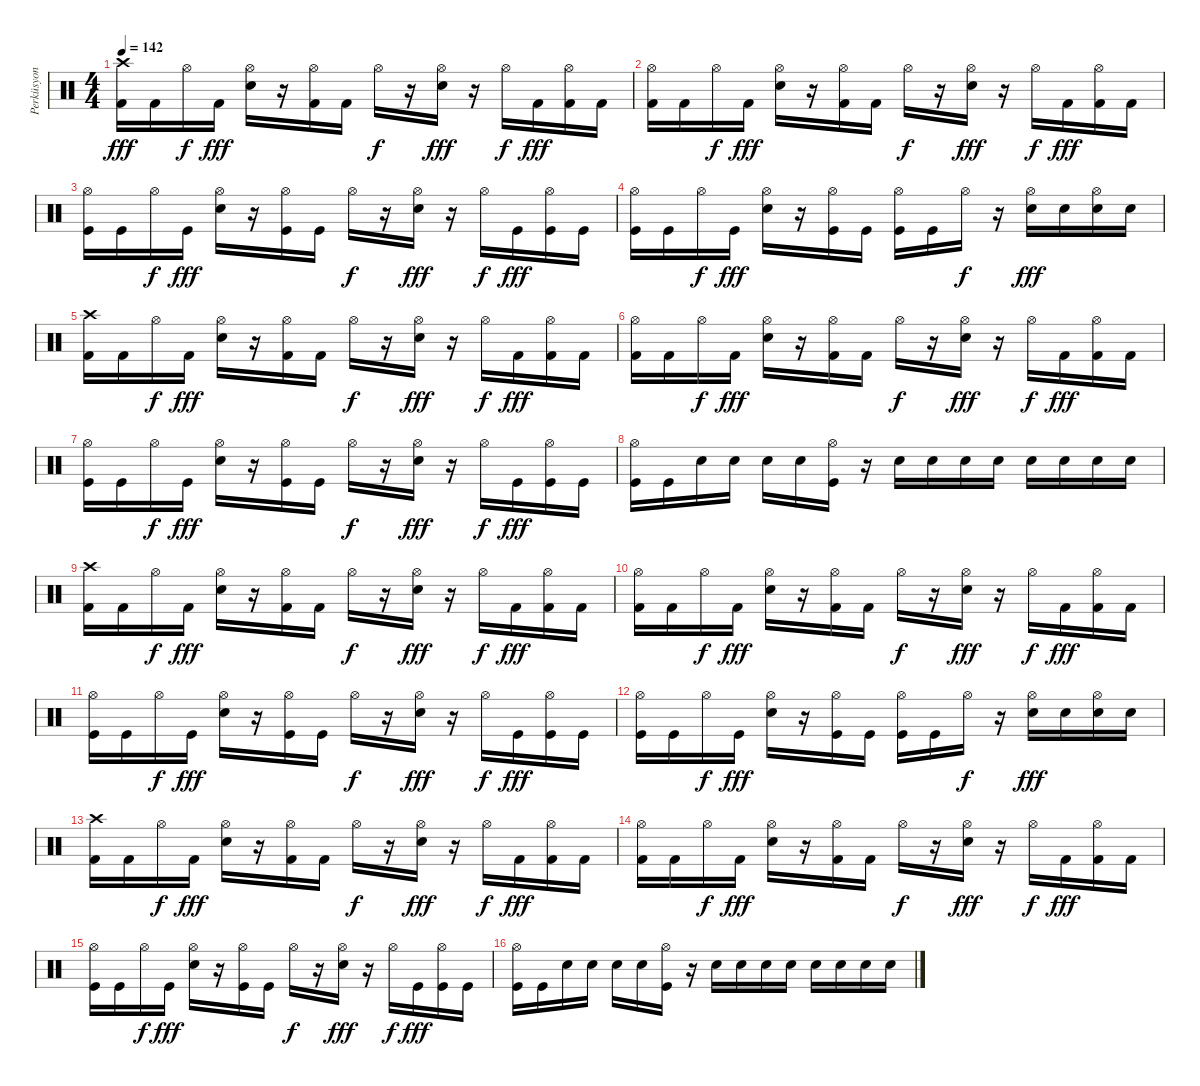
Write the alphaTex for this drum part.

\track ("Perküsyon" "Perküsyon") {instrument percussion}
\staff {score}
\articulation defaults
\ts (4 4)
\tempo 142
\clef neutral
\ks c
("Kick (hit) 2" "Crash high (hit)").16{dy fff} "Kick (hit) 2".16 "Hi-Hat (open)".16{dy f} "Kick (hit) 2".16{dy fff} ("Hi-Hat (open)" "Snare (hit) 2").16 r.16 ("Hi-Hat (open)" "Kick (hit) 2").16 "Kick (hit) 2".16 "Hi-Hat (open)".16{dy f} r.16 ("Hi-Hat (open)" "Snare (hit) 2").16{dy fff} r.16 "Hi-Hat (open)".16{dy f} "Kick (hit) 2".16{dy fff} ("Hi-Hat (open)" "Kick (hit) 2").16 "Kick (hit) 2".16 |
("Hi-Hat (open)" "Kick (hit) 2").16 "Kick (hit) 2".16 "Hi-Hat (open)".16{dy f} "Kick (hit) 2".16{dy fff} ("Hi-Hat (open)" "Snare (hit) 2").16 r.16 ("Hi-Hat (open)" "Kick (hit) 2").16 "Kick (hit) 2".16 "Hi-Hat (open)".16{dy f} r.16 ("Hi-Hat (open)" "Snare (hit) 2").16{dy fff} r.16 "Hi-Hat (open)".16{dy f} "Kick (hit) 2".16{dy fff} ("Hi-Hat (open)" "Kick (hit) 2").16 "Kick (hit) 2".16 |
("Hi-Hat (open)" "Kick (hit)").16 "Kick (hit)".16 "Hi-Hat (open)".16{dy f} "Kick (hit)".16{dy fff} ("Hi-Hat (open)" "Snare (hit) 2").16 r.16 ("Hi-Hat (open)" "Kick (hit)").16 "Kick (hit)".16 "Hi-Hat (open)".16{dy f} r.16 ("Hi-Hat (open)" "Snare (hit) 2").16{dy fff} r.16 "Hi-Hat (open)".16{dy f} "Kick (hit)".16{dy fff} ("Hi-Hat (open)" "Kick (hit)").16 "Kick (hit)".16 |
("Hi-Hat (open)" "Kick (hit)").16 "Kick (hit)".16 "Hi-Hat (open)".16{dy f} "Kick (hit)".16{dy fff} ("Hi-Hat (open)" "Snare (hit) 2").16 r.16 ("Hi-Hat (open)" "Kick (hit)").16 "Kick (hit)".16 ("Hi-Hat (open)" "Kick (hit)").16 "Kick (hit)".16 "Hi-Hat (open)".16{dy f} r.16 ("Hi-Hat (open)" "Snare (hit) 2").16{dy fff} "Snare (hit) 2".16 ("Hi-Hat (open)" "Snare (hit) 2").16 "Snare (hit) 2".16 |
("Kick (hit) 2" "Crash high (hit)").16 "Kick (hit) 2".16 "Hi-Hat (open)".16{dy f} "Kick (hit) 2".16{dy fff} ("Hi-Hat (open)" "Snare (hit) 2").16 r.16 ("Hi-Hat (open)" "Kick (hit) 2").16 "Kick (hit) 2".16 "Hi-Hat (open)".16{dy f} r.16 ("Hi-Hat (open)" "Snare (hit) 2").16{dy fff} r.16 "Hi-Hat (open)".16{dy f} "Kick (hit) 2".16{dy fff} ("Hi-Hat (open)" "Kick (hit) 2").16 "Kick (hit) 2".16 |
("Hi-Hat (open)" "Kick (hit) 2").16 "Kick (hit) 2".16 "Hi-Hat (open)".16{dy f} "Kick (hit) 2".16{dy fff} ("Hi-Hat (open)" "Snare (hit) 2").16 r.16 ("Hi-Hat (open)" "Kick (hit) 2").16 "Kick (hit) 2".16 "Hi-Hat (open)".16{dy f} r.16 ("Hi-Hat (open)" "Snare (hit) 2").16{dy fff} r.16 "Hi-Hat (open)".16{dy f} "Kick (hit) 2".16{dy fff} ("Hi-Hat (open)" "Kick (hit) 2").16 "Kick (hit) 2".16 |
("Hi-Hat (open)" "Kick (hit)").16 "Kick (hit)".16 "Hi-Hat (open)".16{dy f} "Kick (hit)".16{dy fff} ("Hi-Hat (open)" "Snare (hit) 2").16 r.16 ("Hi-Hat (open)" "Kick (hit)").16 "Kick (hit)".16 "Hi-Hat (open)".16{dy f} r.16 ("Hi-Hat (open)" "Snare (hit) 2").16{dy fff} r.16 "Hi-Hat (open)".16{dy f} "Kick (hit)".16{dy fff} ("Hi-Hat (open)" "Kick (hit)").16 "Kick (hit)".16 |
("Hi-Hat (open)" "Kick (hit)").16 "Kick (hit)".16 "Snare (hit) 2".16 "Snare (hit) 2".16 "Snare (hit) 2".16 "Snare (hit) 2".16 ("Hi-Hat (open)" "Kick (hit)").16 r.16 "Snare (hit) 2".16 "Snare (hit) 2".16 "Snare (hit) 2".16 "Snare (hit) 2".16 "Snare (hit) 2".16 "Snare (hit) 2".16 "Snare (hit) 2".16 "Snare (hit) 2".16 |
("Kick (hit) 2" "Crash high (hit)").16 "Kick (hit) 2".16 "Hi-Hat (open)".16{dy f} "Kick (hit) 2".16{dy fff} ("Hi-Hat (open)" "Snare (hit) 2").16 r.16 ("Hi-Hat (open)" "Kick (hit) 2").16 "Kick (hit) 2".16 "Hi-Hat (open)".16{dy f} r.16 ("Hi-Hat (open)" "Snare (hit) 2").16{dy fff} r.16 "Hi-Hat (open)".16{dy f} "Kick (hit) 2".16{dy fff} ("Hi-Hat (open)" "Kick (hit) 2").16 "Kick (hit) 2".16 |
("Hi-Hat (open)" "Kick (hit) 2").16 "Kick (hit) 2".16 "Hi-Hat (open)".16{dy f} "Kick (hit) 2".16{dy fff} ("Hi-Hat (open)" "Snare (hit) 2").16 r.16 ("Hi-Hat (open)" "Kick (hit) 2").16 "Kick (hit) 2".16 "Hi-Hat (open)".16{dy f} r.16 ("Hi-Hat (open)" "Snare (hit) 2").16{dy fff} r.16 "Hi-Hat (open)".16{dy f} "Kick (hit) 2".16{dy fff} ("Hi-Hat (open)" "Kick (hit) 2").16 "Kick (hit) 2".16 |
("Hi-Hat (open)" "Kick (hit)").16 "Kick (hit)".16 "Hi-Hat (open)".16{dy f} "Kick (hit)".16{dy fff} ("Hi-Hat (open)" "Snare (hit) 2").16 r.16 ("Hi-Hat (open)" "Kick (hit)").16 "Kick (hit)".16 "Hi-Hat (open)".16{dy f} r.16 ("Hi-Hat (open)" "Snare (hit) 2").16{dy fff} r.16 "Hi-Hat (open)".16{dy f} "Kick (hit)".16{dy fff} ("Hi-Hat (open)" "Kick (hit)").16 "Kick (hit)".16 |
("Hi-Hat (open)" "Kick (hit)").16 "Kick (hit)".16 "Hi-Hat (open)".16{dy f} "Kick (hit)".16{dy fff} ("Hi-Hat (open)" "Snare (hit) 2").16 r.16 ("Hi-Hat (open)" "Kick (hit)").16 "Kick (hit)".16 ("Hi-Hat (open)" "Kick (hit)").16 "Kick (hit)".16 "Hi-Hat (open)".16{dy f} r.16 ("Hi-Hat (open)" "Snare (hit) 2").16{dy fff} "Snare (hit) 2".16 ("Hi-Hat (open)" "Snare (hit) 2").16 "Snare (hit) 2".16 |
("Kick (hit) 2" "Crash high (hit)").16 "Kick (hit) 2".16 "Hi-Hat (open)".16{dy f} "Kick (hit) 2".16{dy fff} ("Hi-Hat (open)" "Snare (hit) 2").16 r.16 ("Hi-Hat (open)" "Kick (hit) 2").16 "Kick (hit) 2".16 "Hi-Hat (open)".16{dy f} r.16 ("Hi-Hat (open)" "Snare (hit) 2").16{dy fff} r.16 "Hi-Hat (open)".16{dy f} "Kick (hit) 2".16{dy fff} ("Hi-Hat (open)" "Kick (hit) 2").16 "Kick (hit) 2".16 |
("Hi-Hat (open)" "Kick (hit) 2").16 "Kick (hit) 2".16 "Hi-Hat (open)".16{dy f} "Kick (hit) 2".16{dy fff} ("Hi-Hat (open)" "Snare (hit) 2").16 r.16 ("Hi-Hat (open)" "Kick (hit) 2").16 "Kick (hit) 2".16 "Hi-Hat (open)".16{dy f} r.16 ("Hi-Hat (open)" "Snare (hit) 2").16{dy fff} r.16 "Hi-Hat (open)".16{dy f} "Kick (hit) 2".16{dy fff} ("Hi-Hat (open)" "Kick (hit) 2").16 "Kick (hit) 2".16 |
("Hi-Hat (open)" "Kick (hit)").16 "Kick (hit)".16 "Hi-Hat (open)".16{dy f} "Kick (hit)".16{dy fff} ("Hi-Hat (open)" "Snare (hit) 2").16 r.16 ("Hi-Hat (open)" "Kick (hit)").16 "Kick (hit)".16 "Hi-Hat (open)".16{dy f} r.16 ("Hi-Hat (open)" "Snare (hit) 2").16{dy fff} r.16 "Hi-Hat (open)".16{dy f} "Kick (hit)".16{dy fff} ("Hi-Hat (open)" "Kick (hit)").16 "Kick (hit)".16 |
("Hi-Hat (open)" "Kick (hit)").16 "Kick (hit)".16 "Snare (hit) 2".16 "Snare (hit) 2".16 "Snare (hit) 2".16 "Snare (hit) 2".16 ("Hi-Hat (open)" "Kick (hit)").16 r.16 "Snare (hit) 2".16 "Snare (hit) 2".16 "Snare (hit) 2".16 "Snare (hit) 2".16 "Snare (hit) 2".16 "Snare (hit) 2".16 "Snare (hit) 2".16 "Snare (hit) 2".16
